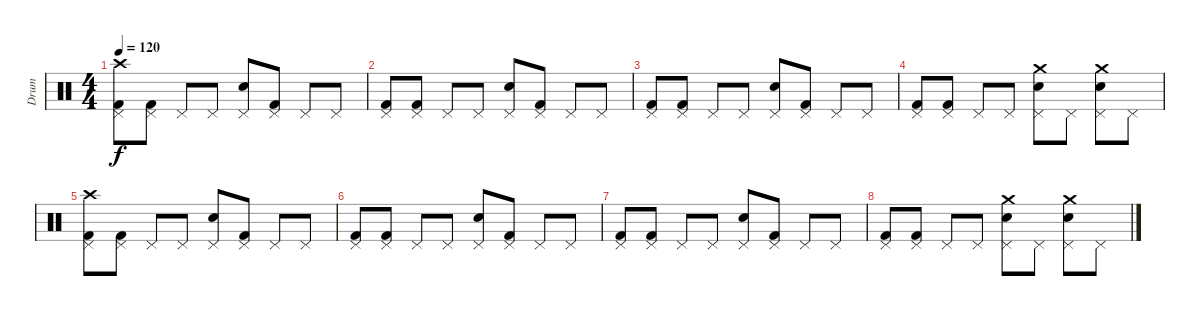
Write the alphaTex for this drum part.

\track ("Drum" "Drum") {instrument percussion}
\staff {score}
\articulation defaults
\ts (4 4)
\tempo 120
\clef neutral
\ks c
("Crash high (hit)" "Kick (hit) 2" "Pedal Hi-Hat (hit)").8{dy f} ("Kick (hit) 2" "Pedal Hi-Hat (hit)").8 "Pedal Hi-Hat (hit)".8 "Pedal Hi-Hat (hit)".8 ("Electric Snare (hit)" "Pedal Hi-Hat (hit)").8 ("Kick (hit) 2" "Pedal Hi-Hat (hit)").8 "Pedal Hi-Hat (hit)".8 "Pedal Hi-Hat (hit)".8 |
("Kick (hit) 2" "Pedal Hi-Hat (hit)").8 ("Kick (hit) 2" "Pedal Hi-Hat (hit)").8 "Pedal Hi-Hat (hit)".8 "Pedal Hi-Hat (hit)".8 ("Electric Snare (hit)" "Pedal Hi-Hat (hit)").8 ("Kick (hit) 2" "Pedal Hi-Hat (hit)").8 "Pedal Hi-Hat (hit)".8 "Pedal Hi-Hat (hit)".8 |
("Kick (hit) 2" "Pedal Hi-Hat (hit)").8 ("Kick (hit) 2" "Pedal Hi-Hat (hit)").8 "Pedal Hi-Hat (hit)".8 "Pedal Hi-Hat (hit)".8 ("Electric Snare (hit)" "Pedal Hi-Hat (hit)").8 ("Kick (hit) 2" "Pedal Hi-Hat (hit)").8 "Pedal Hi-Hat (hit)".8 "Pedal Hi-Hat (hit)".8 |
("Kick (hit) 2" "Pedal Hi-Hat (hit)").8 ("Kick (hit) 2" "Pedal Hi-Hat (hit)").8 "Pedal Hi-Hat (hit)".8 "Pedal Hi-Hat (hit)".8 ("Crash medium (hit)" "Electric Snare (hit)" "Pedal Hi-Hat (hit)").8 "Pedal Hi-Hat (hit)".8 ("Crash medium (hit)" "Electric Snare (hit)" "Pedal Hi-Hat (hit)").8 "Pedal Hi-Hat (hit)".8 |
("Crash high (hit)" "Kick (hit) 2" "Pedal Hi-Hat (hit)").8 ("Kick (hit) 2" "Pedal Hi-Hat (hit)").8 "Pedal Hi-Hat (hit)".8 "Pedal Hi-Hat (hit)".8 ("Electric Snare (hit)" "Pedal Hi-Hat (hit)").8 ("Kick (hit) 2" "Pedal Hi-Hat (hit)").8 "Pedal Hi-Hat (hit)".8 "Pedal Hi-Hat (hit)".8 |
("Kick (hit) 2" "Pedal Hi-Hat (hit)").8 ("Kick (hit) 2" "Pedal Hi-Hat (hit)").8 "Pedal Hi-Hat (hit)".8 "Pedal Hi-Hat (hit)".8 ("Electric Snare (hit)" "Pedal Hi-Hat (hit)").8 ("Kick (hit) 2" "Pedal Hi-Hat (hit)").8 "Pedal Hi-Hat (hit)".8 "Pedal Hi-Hat (hit)".8 |
("Kick (hit) 2" "Pedal Hi-Hat (hit)").8 ("Kick (hit) 2" "Pedal Hi-Hat (hit)").8 "Pedal Hi-Hat (hit)".8 "Pedal Hi-Hat (hit)".8 ("Electric Snare (hit)" "Pedal Hi-Hat (hit)").8 ("Kick (hit) 2" "Pedal Hi-Hat (hit)").8 "Pedal Hi-Hat (hit)".8 "Pedal Hi-Hat (hit)".8 |
("Kick (hit) 2" "Pedal Hi-Hat (hit)").8 ("Kick (hit) 2" "Pedal Hi-Hat (hit)").8 "Pedal Hi-Hat (hit)".8 "Pedal Hi-Hat (hit)".8 ("Crash medium (hit)" "Electric Snare (hit)" "Pedal Hi-Hat (hit)").8 "Pedal Hi-Hat (hit)".8 ("Crash medium (hit)" "Electric Snare (hit)" "Pedal Hi-Hat (hit)").8 "Pedal Hi-Hat (hit)".8
